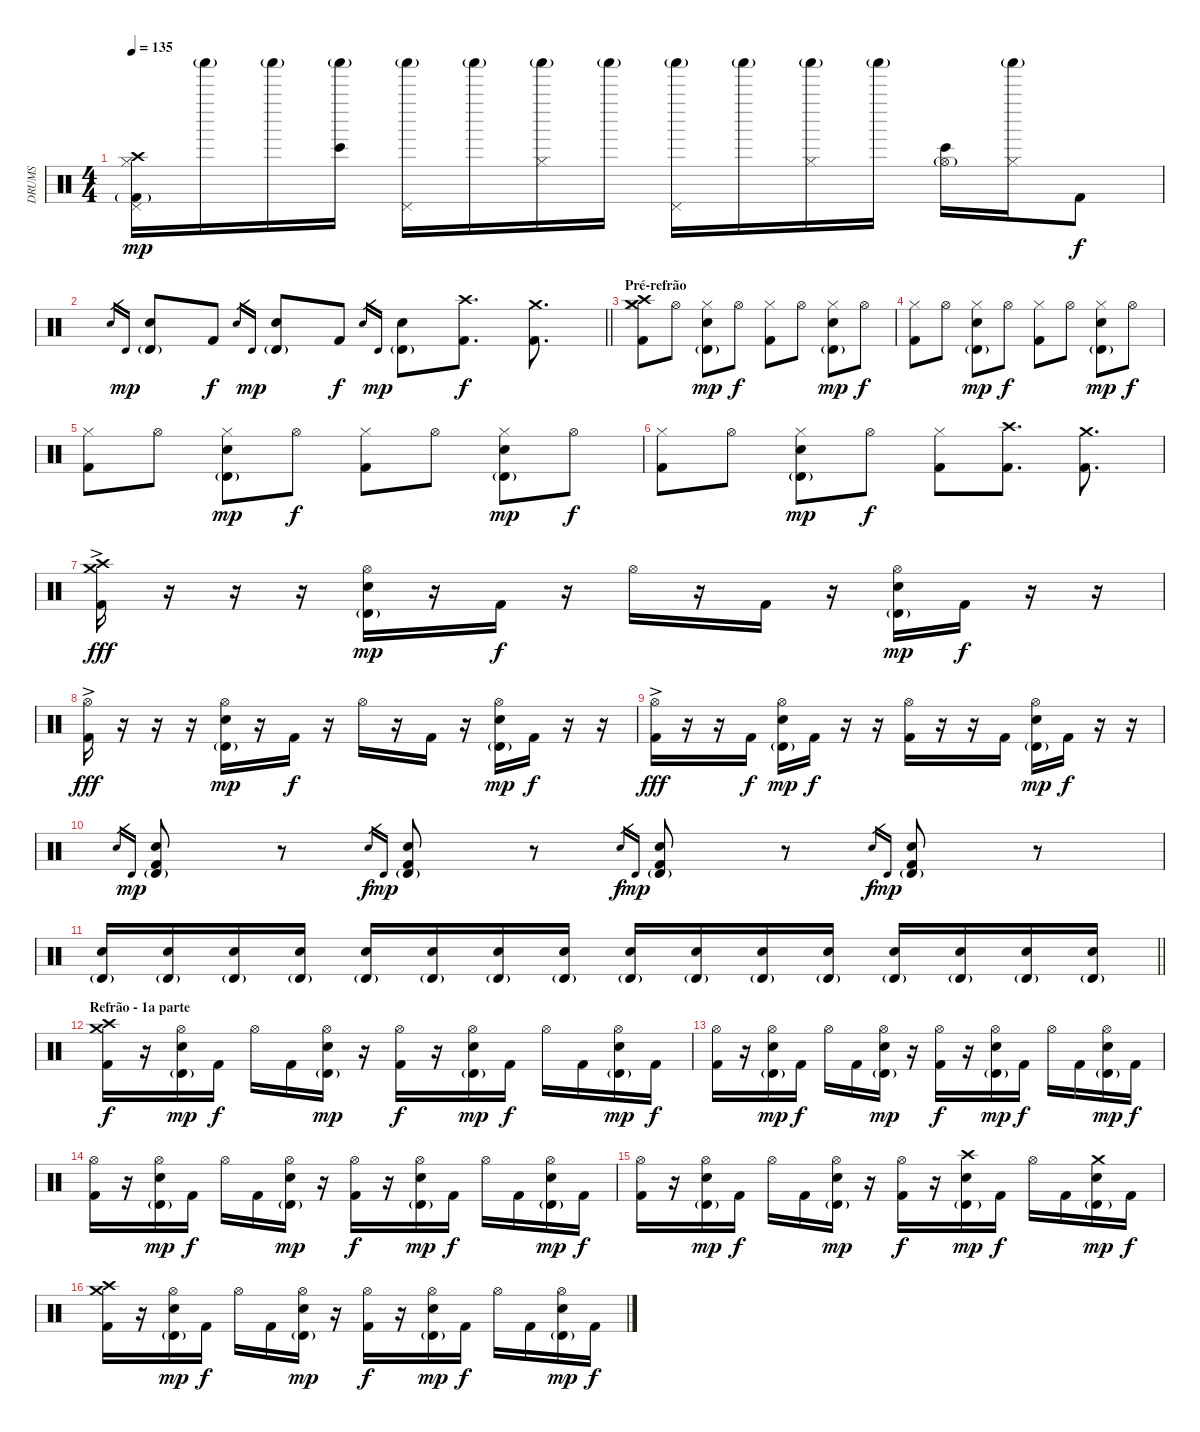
\track ("DRUMS" "DRUMS") {instrument percussion}
\staff {score}
\articulation defaults
\ts (4 4)
\tempo 135
\clef neutral
\ks c
("Kick (hit) 2"{g} "Crash high (hit)" "Hi-Hat (closed)" "Pedal Hi-Hat (hit)").16{dy mp volume 8} "Shaker (hit)"{g}.16 "Shaker (hit)"{g}.16 ("Shaker (hit)"{g} "Bongo High (hit)").16 ("Shaker (hit)"{g} "Pedal Hi-Hat (hit)").16 "Shaker (hit)"{g}.16 ("Shaker (hit)"{g} "Hi-Hat (closed)").16 "Shaker (hit)"{g}.16 ("Shaker (hit)"{g} "Pedal Hi-Hat (hit)").16 "Shaker (hit)"{g}.16 ("Shaker (hit)"{g} "Hi-Hat (closed)").16 "Shaker (hit)"{g}.16 ("Bongo High (hit)" "Hi-Hat (open)"{g}).16 ("Shaker (hit)"{g} "Hi-Hat (closed)").16 "Kick (hit) 2".8{dy f volume 12} |
\barLineRight lightlight "Electric Snare (hit)".16{gr} "Timbale high (hit)".16{gr dy mp}
("Electric Snare (hit)" "Timbale high (hit)"{g}).8 "Kick (hit) 2".8{dy f} "Electric Snare (hit)".16{gr} "Timbale high (hit)".16{gr dy mp} ("Electric Snare (hit)" "Timbale high (hit)"{g}).8 "Kick (hit) 2".8{dy f} "Electric Snare (hit)".16{gr} "Timbale high (hit)".16{gr dy mp} ("Electric Snare (hit)" "Timbale high (hit)"{g}).8 ("Kick (hit) 2" "Crash high (hit)").8{d dy f} ("Kick (hit) 2" "Crash medium (hit)").8{d} |
\section ("" "Pré-refrão")
("Hi-Hat (closed)" "Kick (hit) 2" "Crash high (hit)" "Crash medium (hit)").8 "Hi-Hat (open)".8 ("Hi-Hat (closed)" "Electric Snare (hit)" "Timbale high (hit)"{g}).8{dy mp} "Hi-Hat (open)".8{dy f} ("Hi-Hat (closed)" "Kick (hit) 2").8 "Hi-Hat (open)".8 ("Hi-Hat (closed)" "Electric Snare (hit)" "Timbale high (hit)"{g}).8{dy mp} "Hi-Hat (open)".8{dy f} |
("Hi-Hat (closed)" "Kick (hit) 2").8 "Hi-Hat (open)".8 ("Hi-Hat (closed)" "Electric Snare (hit)" "Timbale high (hit)"{g}).8{dy mp} "Hi-Hat (open)".8{dy f} ("Hi-Hat (closed)" "Kick (hit) 2").8 "Hi-Hat (open)".8 ("Hi-Hat (closed)" "Electric Snare (hit)" "Timbale high (hit)"{g}).8{dy mp} "Hi-Hat (open)".8{dy f} |
("Hi-Hat (closed)" "Kick (hit) 2").8 "Hi-Hat (open)".8 ("Hi-Hat (closed)" "Electric Snare (hit)" "Timbale high (hit)"{g}).8{dy mp} "Hi-Hat (open)".8{dy f} ("Hi-Hat (closed)" "Kick (hit) 2").8 "Hi-Hat (open)".8 ("Hi-Hat (closed)" "Electric Snare (hit)" "Timbale high (hit)"{g}).8{dy mp} "Hi-Hat (open)".8{dy f} |
("Hi-Hat (closed)" "Kick (hit) 2").8 "Hi-Hat (open)".8 ("Hi-Hat (closed)" "Electric Snare (hit)" "Timbale high (hit)"{g}).8{dy mp} "Hi-Hat (open)".8{dy f} ("Hi-Hat (closed)" "Kick (hit) 2").8 ("Kick (hit) 2" "Crash high (hit)").8{d} ("Kick (hit) 2" "Crash medium (hit)").8{d} |
("Crash high (hit)" "Crash medium (hit)" "Kick (hit) 2"{ac}).16{dy fff} r.16 r.16 r.16 ("Hi-Hat (open)" "Electric Snare (hit)" "Timbale high (hit)"{g}).16{dy mp} r.16 "Kick (hit) 2".16{dy f} r.16 "Hi-Hat (open)".16 r.16 "Kick (hit) 2".16 r.16 ("Hi-Hat (open)" "Electric Snare (hit)" "Timbale high (hit)"{g}).16{dy mp} "Kick (hit) 2".16{dy f} r.16 r.16 |
("Hi-Hat (open)" "Kick (hit) 2"{ac}).16{dy fff} r.16 r.16 r.16 ("Hi-Hat (open)" "Electric Snare (hit)" "Timbale high (hit)"{g}).16{dy mp} r.16 "Kick (hit) 2".16{dy f} r.16 "Hi-Hat (open)".16 r.16 "Kick (hit) 2".16 r.16 ("Hi-Hat (open)" "Electric Snare (hit)" "Timbale high (hit)"{g}).16{dy mp} "Kick (hit) 2".16{dy f} r.16 r.16 |
("Hi-Hat (open)" "Kick (hit) 2"{ac}).16{dy fff} r.16 r.16 "Kick (hit) 2".16{dy f} ("Hi-Hat (open)" "Electric Snare (hit)" "Timbale high (hit)"{g}).16{dy mp} "Kick (hit) 2".16{dy f} r.16 r.16 ("Hi-Hat (open)" "Kick (hit) 2").16 r.16 r.16 "Kick (hit) 2".16 ("Hi-Hat (open)" "Electric Snare (hit)" "Timbale high (hit)"{g}).16{dy mp} "Kick (hit) 2".16{dy f} r.16 r.16 |
"Electric Snare (hit)".16{gr} "Timbale high (hit)".16{gr dy mp} ("Electric Snare (hit)" "Timbale high (hit)"{g} "Kick (hit) 2").8 r.8 "Electric Snare (hit)".16{gr dy f} "Timbale high (hit)".16{gr dy mp} ("Electric Snare (hit)" "Timbale high (hit)"{g} "Kick (hit) 2").8 r.8 "Electric Snare (hit)".16{gr dy f} "Timbale high (hit)".16{gr dy mp} ("Electric Snare (hit)" "Timbale high (hit)"{g} "Kick (hit) 2").8 r.8 "Electric Snare (hit)".16{gr dy f} "Timbale high (hit)".16{gr dy mp} ("Electric Snare (hit)" "Timbale high (hit)"{g} "Kick (hit) 2").8 r.8 |
\barLineRight lightlight
("Electric Snare (hit)" "Timbale high (hit)"{g}).16 ("Electric Snare (hit)" "Timbale high (hit)"{g}).16 ("Electric Snare (hit)" "Timbale high (hit)"{g}).16 ("Electric Snare (hit)" "Timbale high (hit)"{g}).16 ("Electric Snare (hit)" "Timbale high (hit)"{g}).16 ("Electric Snare (hit)" "Timbale high (hit)"{g}).16 ("Electric Snare (hit)" "Timbale high (hit)"{g}).16 ("Electric Snare (hit)" "Timbale high (hit)"{g}).16 ("Electric Snare (hit)" "Timbale high (hit)"{g}).16 ("Electric Snare (hit)" "Timbale high (hit)"{g}).16 ("Electric Snare (hit)" "Timbale high (hit)"{g}).16 ("Electric Snare (hit)" "Timbale high (hit)"{g}).16 ("Electric Snare (hit)" "Timbale high (hit)"{g}).16 ("Electric Snare (hit)" "Timbale high (hit)"{g}).16 ("Electric Snare (hit)" "Timbale high (hit)"{g}).16 ("Electric Snare (hit)" "Timbale high (hit)"{g}).16 |
\section ("" "Refrão - 1a parte")
("Crash high (hit)" "Crash medium (hit)" "Kick (hit) 2").16{dy f} r.16 ("Hi-Hat (open)" "Electric Snare (hit)" "Timbale high (hit)"{g}).16{dy mp} "Kick (hit) 2".16{dy f} "Hi-Hat (open)".16 "Kick (hit) 2".16 ("Hi-Hat (open)" "Electric Snare (hit)" "Timbale high (hit)"{g}).16{dy mp} r.16 ("Hi-Hat (open)" "Kick (hit) 2").16{dy f} r.16 ("Hi-Hat (open)" "Electric Snare (hit)" "Timbale high (hit)"{g}).16{dy mp} "Kick (hit) 2".16{dy f} "Hi-Hat (open)".16 "Kick (hit) 2".16 ("Hi-Hat (open)" "Electric Snare (hit)" "Timbale high (hit)"{g}).16{dy mp} "Kick (hit) 2".16{dy f} |
("Hi-Hat (open)" "Kick (hit) 2").16 r.16 ("Hi-Hat (open)" "Electric Snare (hit)" "Timbale high (hit)"{g}).16{dy mp} "Kick (hit) 2".16{dy f} "Hi-Hat (open)".16 "Kick (hit) 2".16 ("Hi-Hat (open)" "Electric Snare (hit)" "Timbale high (hit)"{g}).16{dy mp} r.16 ("Hi-Hat (open)" "Kick (hit) 2").16{dy f} r.16 ("Hi-Hat (open)" "Electric Snare (hit)" "Timbale high (hit)"{g}).16{dy mp} "Kick (hit) 2".16{dy f} "Hi-Hat (open)".16 "Kick (hit) 2".16 ("Hi-Hat (open)" "Electric Snare (hit)" "Timbale high (hit)"{g}).16{dy mp} "Kick (hit) 2".16{dy f} |
("Hi-Hat (open)" "Kick (hit) 2").16 r.16 ("Hi-Hat (open)" "Electric Snare (hit)" "Timbale high (hit)"{g}).16{dy mp} "Kick (hit) 2".16{dy f} "Hi-Hat (open)".16 "Kick (hit) 2".16 ("Hi-Hat (open)" "Electric Snare (hit)" "Timbale high (hit)"{g}).16{dy mp} r.16 ("Hi-Hat (open)" "Kick (hit) 2").16{dy f} r.16 ("Hi-Hat (open)" "Electric Snare (hit)" "Timbale high (hit)"{g}).16{dy mp} "Kick (hit) 2".16{dy f} "Hi-Hat (open)".16 "Kick (hit) 2".16 ("Hi-Hat (open)" "Electric Snare (hit)" "Timbale high (hit)"{g}).16{dy mp} "Kick (hit) 2".16{dy f} |
("Hi-Hat (open)" "Kick (hit) 2").16 r.16 ("Hi-Hat (open)" "Electric Snare (hit)" "Timbale high (hit)"{g}).16{dy mp} "Kick (hit) 2".16{dy f} "Hi-Hat (open)".16 "Kick (hit) 2".16 ("Hi-Hat (open)" "Electric Snare (hit)" "Timbale high (hit)"{g}).16{dy mp} r.16 ("Hi-Hat (open)" "Kick (hit) 2").16{dy f} r.16 ("Crash high (hit)" "Electric Snare (hit)" "Timbale high (hit)"{g}).16{dy mp} "Kick (hit) 2".16{dy f} "Hi-Hat (open)".16 "Kick (hit) 2".16 ("Crash medium (hit)" "Electric Snare (hit)" "Timbale high (hit)"{g}).16{dy mp} "Kick (hit) 2".16{dy f} |
("Crash high (hit)" "Crash medium (hit)" "Kick (hit) 2").16 r.16 ("Hi-Hat (open)" "Electric Snare (hit)" "Timbale high (hit)"{g}).16{dy mp} "Kick (hit) 2".16{dy f} "Hi-Hat (open)".16 "Kick (hit) 2".16 ("Hi-Hat (open)" "Electric Snare (hit)" "Timbale high (hit)"{g}).16{dy mp} r.16 ("Hi-Hat (open)" "Kick (hit) 2").16{dy f} r.16 ("Hi-Hat (open)" "Electric Snare (hit)" "Timbale high (hit)"{g}).16{dy mp} "Kick (hit) 2".16{dy f} "Hi-Hat (open)".16 "Kick (hit) 2".16 ("Hi-Hat (open)" "Electric Snare (hit)" "Timbale high (hit)"{g}).16{dy mp} "Kick (hit) 2".16{dy f}
